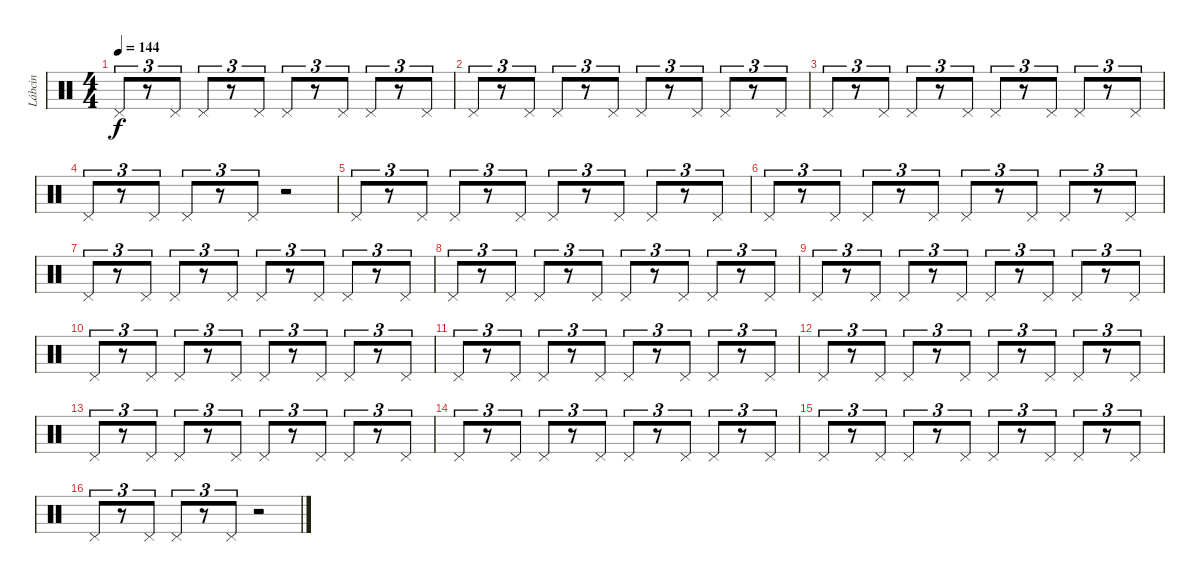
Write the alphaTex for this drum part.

\track ("Lábcin" "Lábcin") {instrument percussion}
\staff {score}
\articulation defaults
\ts (4 4)
\tempo 144
\clef neutral
\ks c "Pedal Hi-Hat (hit)".8{tu (3 2) dy f}
r.8{tu (3 2)} "Pedal Hi-Hat (hit)".8{tu (3 2)} "Pedal Hi-Hat (hit)".8{tu (3 2)} r.8{tu (3 2)} "Pedal Hi-Hat (hit)".8{tu (3 2)} "Pedal Hi-Hat (hit)".8{tu (3 2)} r.8{tu (3 2)} "Pedal Hi-Hat (hit)".8{tu (3 2)} "Pedal Hi-Hat (hit)".8{tu (3 2)} r.8{tu (3 2)} "Pedal Hi-Hat (hit)".8{tu (3 2)} |
"Pedal Hi-Hat (hit)".8{tu (3 2)} r.8{tu (3 2)} "Pedal Hi-Hat (hit)".8{tu (3 2)} "Pedal Hi-Hat (hit)".8{tu (3 2)} r.8{tu (3 2)} "Pedal Hi-Hat (hit)".8{tu (3 2)} "Pedal Hi-Hat (hit)".8{tu (3 2)} r.8{tu (3 2)} "Pedal Hi-Hat (hit)".8{tu (3 2)} "Pedal Hi-Hat (hit)".8{tu (3 2)} r.8{tu (3 2)} "Pedal Hi-Hat (hit)".8{tu (3 2)} |
"Pedal Hi-Hat (hit)".8{tu (3 2)} r.8{tu (3 2)} "Pedal Hi-Hat (hit)".8{tu (3 2)} "Pedal Hi-Hat (hit)".8{tu (3 2)} r.8{tu (3 2)} "Pedal Hi-Hat (hit)".8{tu (3 2)} "Pedal Hi-Hat (hit)".8{tu (3 2)} r.8{tu (3 2)} "Pedal Hi-Hat (hit)".8{tu (3 2)} "Pedal Hi-Hat (hit)".8{tu (3 2)} r.8{tu (3 2)} "Pedal Hi-Hat (hit)".8{tu (3 2)} |
"Pedal Hi-Hat (hit)".8{tu (3 2)} r.8{tu (3 2)} "Pedal Hi-Hat (hit)".8{tu (3 2)} "Pedal Hi-Hat (hit)".8{tu (3 2)} r.8{tu (3 2)} "Pedal Hi-Hat (hit)".8{tu (3 2)} r.2 |
"Pedal Hi-Hat (hit)".8{tu (3 2)} r.8{tu (3 2)} "Pedal Hi-Hat (hit)".8{tu (3 2)} "Pedal Hi-Hat (hit)".8{tu (3 2)} r.8{tu (3 2)} "Pedal Hi-Hat (hit)".8{tu (3 2)} "Pedal Hi-Hat (hit)".8{tu (3 2)} r.8{tu (3 2)} "Pedal Hi-Hat (hit)".8{tu (3 2)} "Pedal Hi-Hat (hit)".8{tu (3 2)} r.8{tu (3 2)} "Pedal Hi-Hat (hit)".8{tu (3 2)} |
"Pedal Hi-Hat (hit)".8{tu (3 2)} r.8{tu (3 2)} "Pedal Hi-Hat (hit)".8{tu (3 2)} "Pedal Hi-Hat (hit)".8{tu (3 2)} r.8{tu (3 2)} "Pedal Hi-Hat (hit)".8{tu (3 2)} "Pedal Hi-Hat (hit)".8{tu (3 2)} r.8{tu (3 2)} "Pedal Hi-Hat (hit)".8{tu (3 2)} "Pedal Hi-Hat (hit)".8{tu (3 2)} r.8{tu (3 2)} "Pedal Hi-Hat (hit)".8{tu (3 2)} |
"Pedal Hi-Hat (hit)".8{tu (3 2)} r.8{tu (3 2)} "Pedal Hi-Hat (hit)".8{tu (3 2)} "Pedal Hi-Hat (hit)".8{tu (3 2)} r.8{tu (3 2)} "Pedal Hi-Hat (hit)".8{tu (3 2)} "Pedal Hi-Hat (hit)".8{tu (3 2)} r.8{tu (3 2)} "Pedal Hi-Hat (hit)".8{tu (3 2)} "Pedal Hi-Hat (hit)".8{tu (3 2)} r.8{tu (3 2)} "Pedal Hi-Hat (hit)".8{tu (3 2)} |
"Pedal Hi-Hat (hit)".8{tu (3 2)} r.8{tu (3 2)} "Pedal Hi-Hat (hit)".8{tu (3 2)} "Pedal Hi-Hat (hit)".8{tu (3 2)} r.8{tu (3 2)} "Pedal Hi-Hat (hit)".8{tu (3 2)} "Pedal Hi-Hat (hit)".8{tu (3 2)} r.8{tu (3 2)} "Pedal Hi-Hat (hit)".8{tu (3 2)} "Pedal Hi-Hat (hit)".8{tu (3 2)} r.8{tu (3 2)} "Pedal Hi-Hat (hit)".8{tu (3 2)} |
"Pedal Hi-Hat (hit)".8{tu (3 2)} r.8{tu (3 2)} "Pedal Hi-Hat (hit)".8{tu (3 2)} "Pedal Hi-Hat (hit)".8{tu (3 2)} r.8{tu (3 2)} "Pedal Hi-Hat (hit)".8{tu (3 2)} "Pedal Hi-Hat (hit)".8{tu (3 2)} r.8{tu (3 2)} "Pedal Hi-Hat (hit)".8{tu (3 2)} "Pedal Hi-Hat (hit)".8{tu (3 2)} r.8{tu (3 2)} "Pedal Hi-Hat (hit)".8{tu (3 2)} |
"Pedal Hi-Hat (hit)".8{tu (3 2)} r.8{tu (3 2)} "Pedal Hi-Hat (hit)".8{tu (3 2)} "Pedal Hi-Hat (hit)".8{tu (3 2)} r.8{tu (3 2)} "Pedal Hi-Hat (hit)".8{tu (3 2)} "Pedal Hi-Hat (hit)".8{tu (3 2)} r.8{tu (3 2)} "Pedal Hi-Hat (hit)".8{tu (3 2)} "Pedal Hi-Hat (hit)".8{tu (3 2)} r.8{tu (3 2)} "Pedal Hi-Hat (hit)".8{tu (3 2)} |
"Pedal Hi-Hat (hit)".8{tu (3 2)} r.8{tu (3 2)} "Pedal Hi-Hat (hit)".8{tu (3 2)} "Pedal Hi-Hat (hit)".8{tu (3 2)} r.8{tu (3 2)} "Pedal Hi-Hat (hit)".8{tu (3 2)} "Pedal Hi-Hat (hit)".8{tu (3 2)} r.8{tu (3 2)} "Pedal Hi-Hat (hit)".8{tu (3 2)} "Pedal Hi-Hat (hit)".8{tu (3 2)} r.8{tu (3 2)} "Pedal Hi-Hat (hit)".8{tu (3 2)} |
"Pedal Hi-Hat (hit)".8{tu (3 2)} r.8{tu (3 2)} "Pedal Hi-Hat (hit)".8{tu (3 2)} "Pedal Hi-Hat (hit)".8{tu (3 2)} r.8{tu (3 2)} "Pedal Hi-Hat (hit)".8{tu (3 2)} "Pedal Hi-Hat (hit)".8{tu (3 2)} r.8{tu (3 2)} "Pedal Hi-Hat (hit)".8{tu (3 2)} "Pedal Hi-Hat (hit)".8{tu (3 2)} r.8{tu (3 2)} "Pedal Hi-Hat (hit)".8{tu (3 2)} |
"Pedal Hi-Hat (hit)".8{tu (3 2)} r.8{tu (3 2)} "Pedal Hi-Hat (hit)".8{tu (3 2)} "Pedal Hi-Hat (hit)".8{tu (3 2)} r.8{tu (3 2)} "Pedal Hi-Hat (hit)".8{tu (3 2)} "Pedal Hi-Hat (hit)".8{tu (3 2)} r.8{tu (3 2)} "Pedal Hi-Hat (hit)".8{tu (3 2)} "Pedal Hi-Hat (hit)".8{tu (3 2)} r.8{tu (3 2)} "Pedal Hi-Hat (hit)".8{tu (3 2)} |
"Pedal Hi-Hat (hit)".8{tu (3 2)} r.8{tu (3 2)} "Pedal Hi-Hat (hit)".8{tu (3 2)} "Pedal Hi-Hat (hit)".8{tu (3 2)} r.8{tu (3 2)} "Pedal Hi-Hat (hit)".8{tu (3 2)} "Pedal Hi-Hat (hit)".8{tu (3 2)} r.8{tu (3 2)} "Pedal Hi-Hat (hit)".8{tu (3 2)} "Pedal Hi-Hat (hit)".8{tu (3 2)} r.8{tu (3 2)} "Pedal Hi-Hat (hit)".8{tu (3 2)} |
"Pedal Hi-Hat (hit)".8{tu (3 2)} r.8{tu (3 2)} "Pedal Hi-Hat (hit)".8{tu (3 2)} "Pedal Hi-Hat (hit)".8{tu (3 2)} r.8{tu (3 2)} "Pedal Hi-Hat (hit)".8{tu (3 2)} "Pedal Hi-Hat (hit)".8{tu (3 2)} r.8{tu (3 2)} "Pedal Hi-Hat (hit)".8{tu (3 2)} "Pedal Hi-Hat (hit)".8{tu (3 2)} r.8{tu (3 2)} "Pedal Hi-Hat (hit)".8{tu (3 2)} |
"Pedal Hi-Hat (hit)".8{tu (3 2)} r.8{tu (3 2)} "Pedal Hi-Hat (hit)".8{tu (3 2)} "Pedal Hi-Hat (hit)".8{tu (3 2)} r.8{tu (3 2)} "Pedal Hi-Hat (hit)".8{tu (3 2)} r.2
